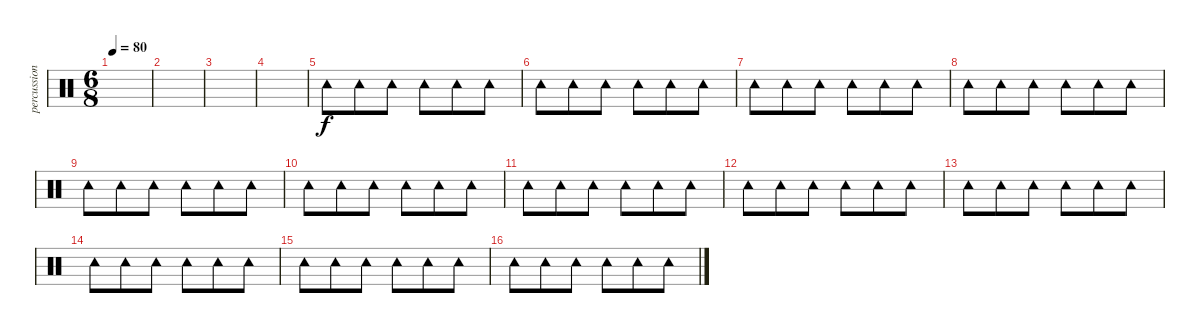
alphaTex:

\track ("percussions 2" "percussion") {instrument percussion}
\staff {score}
\articulation defaults
\ts (6 8)
\tempo 80
\clef neutral
\ks c
|
|
|
|
"Tambourine (hit)".8 "Tambourine (hit)".8 "Tambourine (hit)".8 "Tambourine (hit)".8 "Tambourine (hit)".8 "Tambourine (hit)".8 |
"Tambourine (hit)".8 "Tambourine (hit)".8 "Tambourine (hit)".8 "Tambourine (hit)".8 "Tambourine (hit)".8 "Tambourine (hit)".8 |
"Tambourine (hit)".8 "Tambourine (hit)".8 "Tambourine (hit)".8 "Tambourine (hit)".8 "Tambourine (hit)".8 "Tambourine (hit)".8 |
"Tambourine (hit)".8 "Tambourine (hit)".8 "Tambourine (hit)".8 "Tambourine (hit)".8 "Tambourine (hit)".8 "Tambourine (hit)".8 |
"Tambourine (hit)".8 "Tambourine (hit)".8 "Tambourine (hit)".8 "Tambourine (hit)".8 "Tambourine (hit)".8 "Tambourine (hit)".8 |
"Tambourine (hit)".8 "Tambourine (hit)".8 "Tambourine (hit)".8 "Tambourine (hit)".8 "Tambourine (hit)".8 "Tambourine (hit)".8 |
"Tambourine (hit)".8 "Tambourine (hit)".8 "Tambourine (hit)".8 "Tambourine (hit)".8 "Tambourine (hit)".8 "Tambourine (hit)".8 |
"Tambourine (hit)".8 "Tambourine (hit)".8 "Tambourine (hit)".8 "Tambourine (hit)".8 "Tambourine (hit)".8 "Tambourine (hit)".8 |
"Tambourine (hit)".8 "Tambourine (hit)".8 "Tambourine (hit)".8 "Tambourine (hit)".8 "Tambourine (hit)".8 "Tambourine (hit)".8 |
"Tambourine (hit)".8 "Tambourine (hit)".8 "Tambourine (hit)".8 "Tambourine (hit)".8 "Tambourine (hit)".8 "Tambourine (hit)".8 |
"Tambourine (hit)".8 "Tambourine (hit)".8 "Tambourine (hit)".8 "Tambourine (hit)".8 "Tambourine (hit)".8 "Tambourine (hit)".8 |
"Tambourine (hit)".8 "Tambourine (hit)".8 "Tambourine (hit)".8 "Tambourine (hit)".8 "Tambourine (hit)".8 "Tambourine (hit)".8
